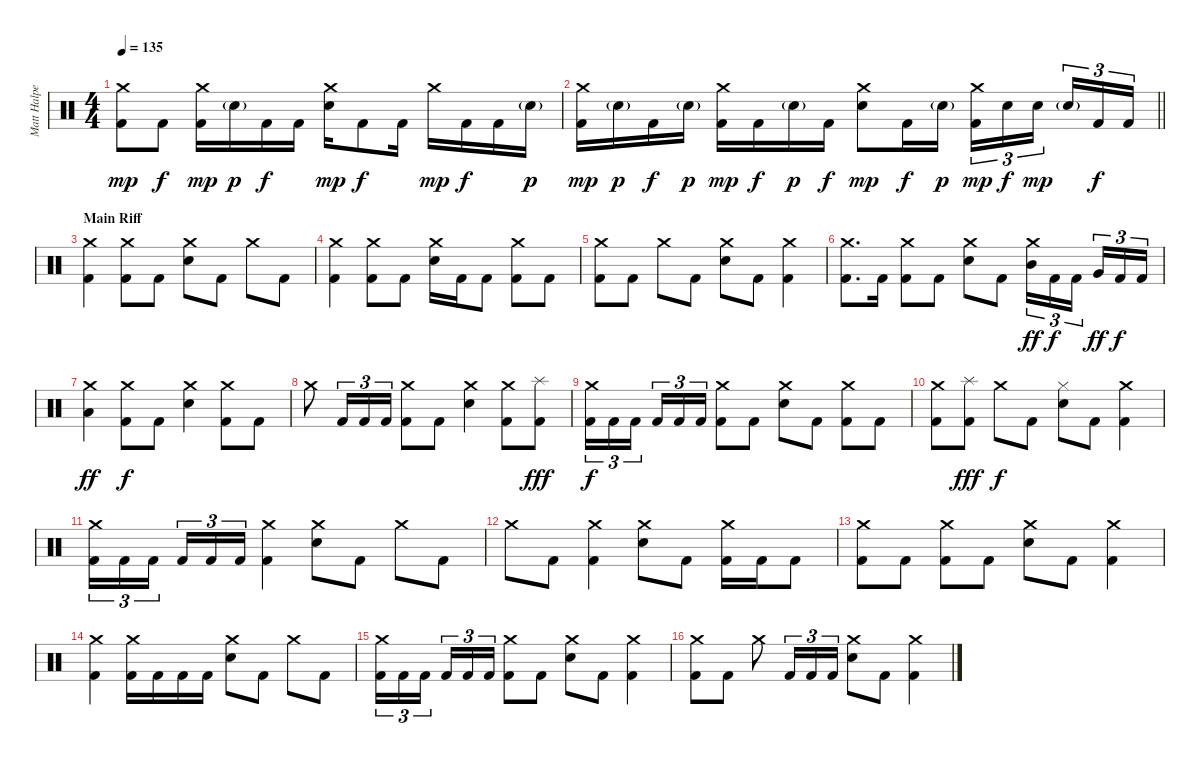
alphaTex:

\track ("Matt Halpern - Drums" "Matt Halpe") {instrument percussion}
\staff {score}
\articulation defaults
\ts (4 4)
\tempo 135
\clef neutral
\ks c
("Crash medium (hit)" "Kick (hit) 2").8{dy mp} "Kick (hit) 2".8{dy f} ("Crash medium (hit)" "Kick (hit) 2").16{dy mp} "Electric Snare (hit)"{g}.16{dy p} "Kick (hit) 2".16{dy f} "Kick (hit) 2".16 ("Crash medium (hit)" "Electric Snare (hit)").16{dy mp} "Kick (hit) 2".8{dy f} "Kick (hit) 2".16 "Crash medium (hit)".16{dy mp} "Kick (hit) 2".16{dy f} "Kick (hit) 2".16 "Electric Snare (hit)"{g}.16{dy p} |
\barLineRight lightlight
("Crash medium (hit)" "Kick (hit) 2").16{dy mp} "Electric Snare (hit)"{g}.16{dy p} "Kick (hit) 2".16{dy f} "Electric Snare (hit)"{g}.16{dy p} ("Crash medium (hit)" "Kick (hit) 2").16{dy mp} "Kick (hit) 2".16{dy f} "Electric Snare (hit)"{g}.16{dy p} "Kick (hit) 2".16{dy f} ("Crash medium (hit)" "Electric Snare (hit)").8{dy mp} "Kick (hit) 2".16{dy f} "Electric Snare (hit)"{g}.16{dy p} ("Crash medium (hit)" "Kick (hit) 2").16{tu (3 2) dy mp} "Electric Snare (hit)".16{tu (3 2) dy f} "Electric Snare (hit)".16{tu (3 2) dy mp beam splitsecondary} "Electric Snare (hit)"{g}.16{tu (3 2)} "Kick (hit) 2".16{tu (3 2) dy f} "Kick (hit) 2".16{tu (3 2)} |
\section ("" "Main Riff")
("Crash medium (hit)" "Kick (hit) 2").4 ("Crash medium (hit)" "Kick (hit) 2").8 "Kick (hit) 2".8 ("Crash medium (hit)" "Electric Snare (hit)").8 "Kick (hit) 2".8 "Crash medium (hit)".8 "Kick (hit) 2".8 |
("Crash medium (hit)" "Kick (hit) 2").4 ("Crash medium (hit)" "Kick (hit) 2").8 "Kick (hit) 2".8 ("Crash medium (hit)" "Electric Snare (hit)").16 "Kick (hit) 2".16 "Kick (hit) 2".8 ("Crash medium (hit)" "Kick (hit) 2").8 "Kick (hit) 2".8 |
("Crash medium (hit)" "Kick (hit) 2").8 "Kick (hit) 2".8 "Crash medium (hit)".8 "Kick (hit) 2".8 ("Crash medium (hit)" "Electric Snare (hit)").8 "Kick (hit) 2".8 ("Crash medium (hit)" "Kick (hit) 2").4 |
("Crash medium (hit)" "Kick (hit) 2").8{d} "Kick (hit) 2".16 ("Crash medium (hit)" "Kick (hit) 2").8 "Kick (hit) 2".8 ("Crash medium (hit)" "Electric Snare (hit)").8 "Kick (hit) 2".8 ("Crash medium (hit)" "Mid Tom (hit)").16{tu (3 2) dy ff} "Kick (hit) 2".16{tu (3 2) dy f} "Kick (hit) 2".16{tu (3 2) beam splitsecondary} "Very Low Tom (hit)".16{tu (3 2) dy ff} "Kick (hit) 2".16{tu (3 2) dy f} "Kick (hit) 2".16{tu (3 2)} |
("Crash medium (hit)" "Low Floor Tom (hit)").4{dy ff} ("Crash medium (hit)" "Kick (hit) 2").8{dy f} "Kick (hit) 2".8 ("Crash medium (hit)" "Electric Snare (hit)").4 ("Crash medium (hit)" "Kick (hit) 2").8 "Kick (hit) 2".8 |
"Crash medium (hit)".8 "Kick (hit) 2".16{tu (3 2)} "Kick (hit) 2".16{tu (3 2)} "Kick (hit) 2".16{tu (3 2)} ("Crash medium (hit)" "Kick (hit) 2").8 "Kick (hit) 2".8 ("Crash medium (hit)" "Electric Snare (hit)").4 ("Crash medium (hit)" "Kick (hit) 2").8 ("Splash (hit)" "Kick (hit) 2").8{dy fff} |
("Crash medium (hit)" "Kick (hit) 2").16{tu (3 2) dy f} "Kick (hit) 2".16{tu (3 2)} "Kick (hit) 2".16{tu (3 2) beam splitsecondary} "Kick (hit) 2".16{tu (3 2)} "Kick (hit) 2".16{tu (3 2)} "Kick (hit) 2".16{tu (3 2)} ("Crash medium (hit)" "Kick (hit) 2").8 "Kick (hit) 2".8 ("Crash medium (hit)" "Electric Snare (hit)").8 "Kick (hit) 2".8 ("Crash medium (hit)" "Kick (hit) 2").8 "Kick (hit) 2".8 |
("Crash medium (hit)" "Kick (hit) 2").8 ("Splash (hit)" "Kick (hit) 2").8{dy fff} "Crash medium (hit)".8{dy f} "Kick (hit) 2".8 ("Hi-Hat (closed)" "Electric Snare (hit)").8 "Kick (hit) 2".8 ("Crash medium (hit)" "Kick (hit) 2").4 |
("Crash medium (hit)" "Kick (hit) 2").16{tu (3 2)} "Kick (hit) 2".16{tu (3 2)} "Kick (hit) 2".16{tu (3 2) beam splitsecondary} "Kick (hit) 2".16{tu (3 2)} "Kick (hit) 2".16{tu (3 2)} "Kick (hit) 2".16{tu (3 2)} ("Crash medium (hit)" "Kick (hit) 2").4 ("Crash medium (hit)" "Electric Snare (hit)").8 "Kick (hit) 2".8 "Crash medium (hit)".8 "Kick (hit) 2".8 |
"Crash medium (hit)".8 "Kick (hit) 2".8 ("Crash medium (hit)" "Kick (hit) 2").4 ("Crash medium (hit)" "Electric Snare (hit)").8 "Kick (hit) 2".8 ("Crash medium (hit)" "Kick (hit) 2").16 "Kick (hit) 2".16 "Kick (hit) 2".8 |
("Crash medium (hit)" "Kick (hit) 2").8 "Kick (hit) 2".8 ("Crash medium (hit)" "Kick (hit) 2").8 "Kick (hit) 2".8 ("Crash medium (hit)" "Electric Snare (hit)").8 "Kick (hit) 2".8 ("Crash medium (hit)" "Kick (hit) 2").4 |
("Crash medium (hit)" "Kick (hit) 2").4 ("Crash medium (hit)" "Kick (hit) 2").16 "Kick (hit) 2".16 "Kick (hit) 2".16 "Kick (hit) 2".16 ("Crash medium (hit)" "Electric Snare (hit)").8 "Kick (hit) 2".8 "Crash medium (hit)".8 "Kick (hit) 2".8 |
("Crash medium (hit)" "Kick (hit) 2").16{tu (3 2)} "Kick (hit) 2".16{tu (3 2)} "Kick (hit) 2".16{tu (3 2) beam splitsecondary} "Kick (hit) 2".16{tu (3 2)} "Kick (hit) 2".16{tu (3 2)} "Kick (hit) 2".16{tu (3 2)} ("Crash medium (hit)" "Kick (hit) 2").8 "Kick (hit) 2".8 ("Crash medium (hit)" "Electric Snare (hit)").8 "Kick (hit) 2".8 ("Crash medium (hit)" "Kick (hit) 2").4 |
("Crash medium (hit)" "Kick (hit) 2").8 "Kick (hit) 2".8 "Crash medium (hit)".8 "Kick (hit) 2".16{tu (3 2)} "Kick (hit) 2".16{tu (3 2)} "Kick (hit) 2".16{tu (3 2)} ("Crash medium (hit)" "Electric Snare (hit)").8 "Kick (hit) 2".8 ("Crash medium (hit)" "Kick (hit) 2").4
